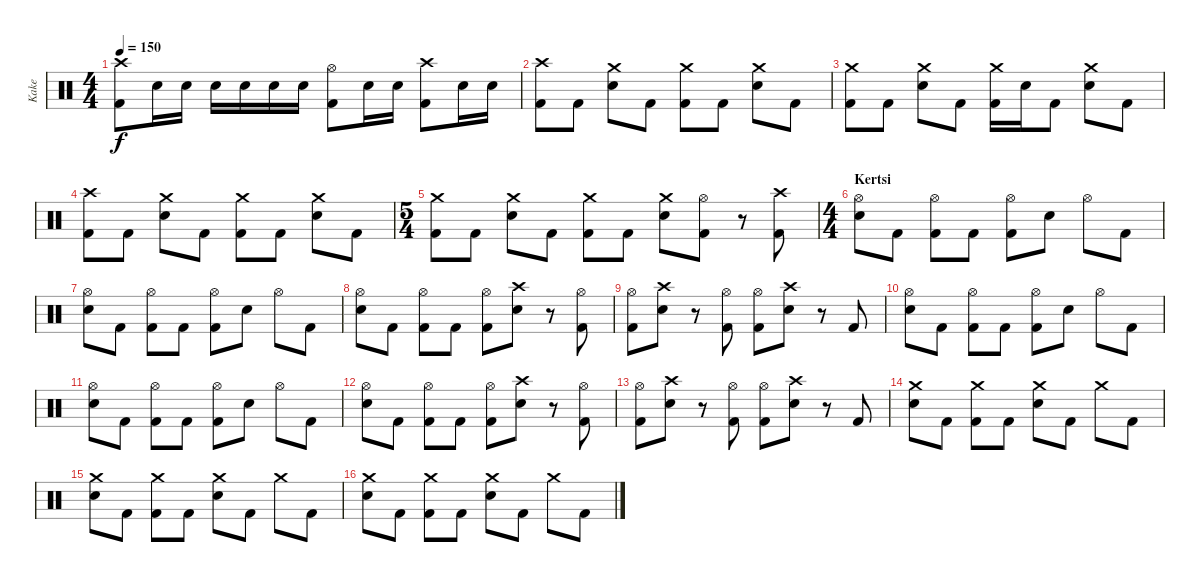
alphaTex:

\track ("Kake" "Kake") {instrument percussion}
\staff {score}
\articulation defaults
\ts (4 4)
\tempo 150
\clef neutral
\ks c
("Crash high (hit)" "Kick (hit) 2").8{dy f} "Electric Snare (hit)".16 "Electric Snare (hit)".16 "Electric Snare (hit)".16 "Electric Snare (hit)".16 "Electric Snare (hit)".16 "Electric Snare (hit)".16 ("Hi-Hat (open)" "Kick (hit) 2").8 "Electric Snare (hit)".16 "Electric Snare (hit)".16 ("Crash high (hit)" "Kick (hit) 2").8 "Electric Snare (hit)".16 "Electric Snare (hit)".16 |
("Crash high (hit)" "Kick (hit) 2").8 "Kick (hit) 2".8 ("Crash medium (hit)" "Electric Snare (hit)").8 "Kick (hit) 2".8 ("Crash medium (hit)" "Kick (hit) 2").8 "Kick (hit) 2".8 ("Crash medium (hit)" "Electric Snare (hit)").8 "Kick (hit) 2".8 |
("Crash medium (hit)" "Kick (hit) 2").8 "Kick (hit) 2".8 ("Crash medium (hit)" "Electric Snare (hit)").8 "Kick (hit) 2".8 ("Crash medium (hit)" "Kick (hit) 2").16 "Electric Snare (hit)".16 "Kick (hit) 2".8 ("Crash medium (hit)" "Electric Snare (hit)").8 "Kick (hit) 2".8 |
("Crash high (hit)" "Kick (hit) 2").8 "Kick (hit) 2".8 ("Crash medium (hit)" "Electric Snare (hit)").8 "Kick (hit) 2".8 ("Crash medium (hit)" "Kick (hit) 2").8 "Kick (hit) 2".8 ("Crash medium (hit)" "Electric Snare (hit)").8 "Kick (hit) 2".8 |
\ts (5 4)
("Crash medium (hit)" "Kick (hit) 2").8 "Kick (hit) 2".8 ("Crash medium (hit)" "Electric Snare (hit)").8 "Kick (hit) 2".8 ("Crash medium (hit)" "Kick (hit) 2").8 "Kick (hit) 2".8 ("Crash medium (hit)" "Electric Snare (hit)").8 ("Hi-Hat (open)" "Kick (hit) 2").8 r.8 ("Crash high (hit)" "Kick (hit) 2").8 |
\ts (4 4)
\section ("" "Kertsi")
("Hi-Hat (open)" "Electric Snare (hit)").8 "Kick (hit) 2".8 ("Hi-Hat (open)" "Kick (hit) 2").8 "Kick (hit) 2".8 ("Hi-Hat (open)" "Kick (hit) 2").8 "Electric Snare (hit)".8 "Hi-Hat (open)".8 "Kick (hit) 2".8 |
("Hi-Hat (open)" "Electric Snare (hit)").8 "Kick (hit) 2".8 ("Hi-Hat (open)" "Kick (hit) 2").8 "Kick (hit) 2".8 ("Hi-Hat (open)" "Kick (hit) 2").8 "Electric Snare (hit)".8 "Hi-Hat (open)".8 "Kick (hit) 2".8 |
("Hi-Hat (open)" "Electric Snare (hit)").8 "Kick (hit) 2".8 ("Hi-Hat (open)" "Kick (hit) 2").8 "Kick (hit) 2".8 ("Hi-Hat (open)" "Kick (hit) 2").8 ("Crash high (hit)" "Electric Snare (hit)").8 r.8 ("Hi-Hat (open)" "Kick (hit) 2").8 |
("Hi-Hat (open)" "Kick (hit) 2").8 ("Crash high (hit)" "Electric Snare (hit)").8 r.8 ("Hi-Hat (open)" "Kick (hit) 2").8 ("Hi-Hat (open)" "Kick (hit) 2").8 ("Crash high (hit)" "Electric Snare (hit)").8 r.8 "Kick (hit) 2".8 |
("Hi-Hat (open)" "Electric Snare (hit)").8 "Kick (hit) 2".8 ("Hi-Hat (open)" "Kick (hit) 2").8 "Kick (hit) 2".8 ("Hi-Hat (open)" "Kick (hit) 2").8 "Electric Snare (hit)".8 "Hi-Hat (open)".8 "Kick (hit) 2".8 |
("Hi-Hat (open)" "Electric Snare (hit)").8 "Kick (hit) 2".8 ("Hi-Hat (open)" "Kick (hit) 2").8 "Kick (hit) 2".8 ("Hi-Hat (open)" "Kick (hit) 2").8 "Electric Snare (hit)".8 "Hi-Hat (open)".8 "Kick (hit) 2".8 |
("Hi-Hat (open)" "Electric Snare (hit)").8 "Kick (hit) 2".8 ("Hi-Hat (open)" "Kick (hit) 2").8 "Kick (hit) 2".8 ("Hi-Hat (open)" "Kick (hit) 2").8 ("Crash high (hit)" "Electric Snare (hit)").8 r.8 ("Hi-Hat (open)" "Kick (hit) 2").8 |
("Hi-Hat (open)" "Kick (hit) 2").8 ("Crash high (hit)" "Electric Snare (hit)").8 r.8 ("Hi-Hat (open)" "Kick (hit) 2").8 ("Hi-Hat (open)" "Kick (hit) 2").8 ("Crash high (hit)" "Electric Snare (hit)").8 r.8 "Kick (hit) 2".8 |
("Crash medium (hit)" "Electric Snare (hit)").8 "Kick (hit) 2".8 ("Crash medium (hit)" "Kick (hit) 2").8 "Kick (hit) 2".8 ("Crash medium (hit)" "Electric Snare (hit)").8 "Kick (hit) 2".8 "Crash medium (hit)".8 "Kick (hit) 2".8 |
("Crash medium (hit)" "Electric Snare (hit)").8 "Kick (hit) 2".8 ("Crash medium (hit)" "Kick (hit) 2").8 "Kick (hit) 2".8 ("Crash medium (hit)" "Electric Snare (hit)").8 "Kick (hit) 2".8 "Crash medium (hit)".8 "Kick (hit) 2".8 |
("Crash medium (hit)" "Electric Snare (hit)").8 "Kick (hit) 2".8 ("Crash medium (hit)" "Kick (hit) 2").8 "Kick (hit) 2".8 ("Crash medium (hit)" "Electric Snare (hit)").8 "Kick (hit) 2".8 "Crash medium (hit)".8 "Kick (hit) 2".8
